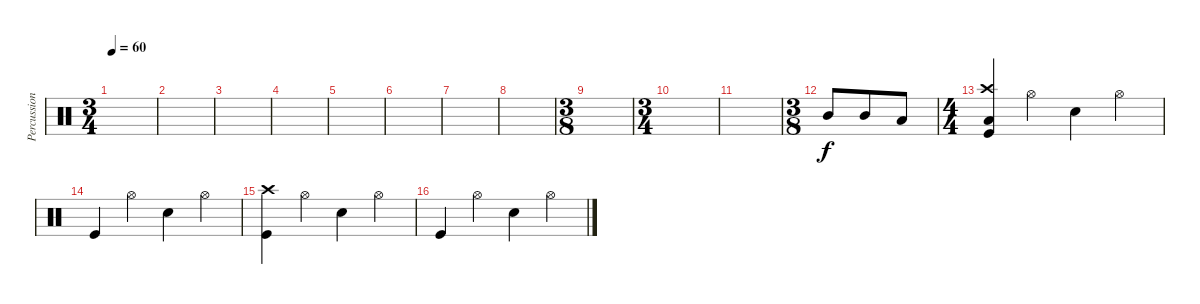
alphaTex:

\track ("Percussion" "Percussion") {instrument percussion}
\staff {score}
\articulation defaults
\ts (3 4)
\tempo 60
\clef neutral
\ks c
|
|
|
|
|
|
|
|
\ts (3 8)
|
\ts (3 4)
|
|
\ts (3 8)
"Mid Tom (hit)".8 "Mid Tom (hit)".8 "Low Tom (hit)".8 |
\ts (4 4)
("Low Tom (hit)" "Crash high (hit)" "Kick (hit)").4 "Hi-Hat (open)".4 "Snare (hit) 2".4 "Hi-Hat (open)".4 |
"Kick (hit)".4 "Hi-Hat (open)".4 "Snare (hit) 2".4 "Hi-Hat (open)".4 |
("Crash high (hit)" "Kick (hit)").4 "Hi-Hat (open)".4 "Snare (hit) 2".4 "Hi-Hat (open)".4 |
"Kick (hit)".4 "Hi-Hat (open)".4 "Snare (hit) 2".4 "Hi-Hat (open)".4
